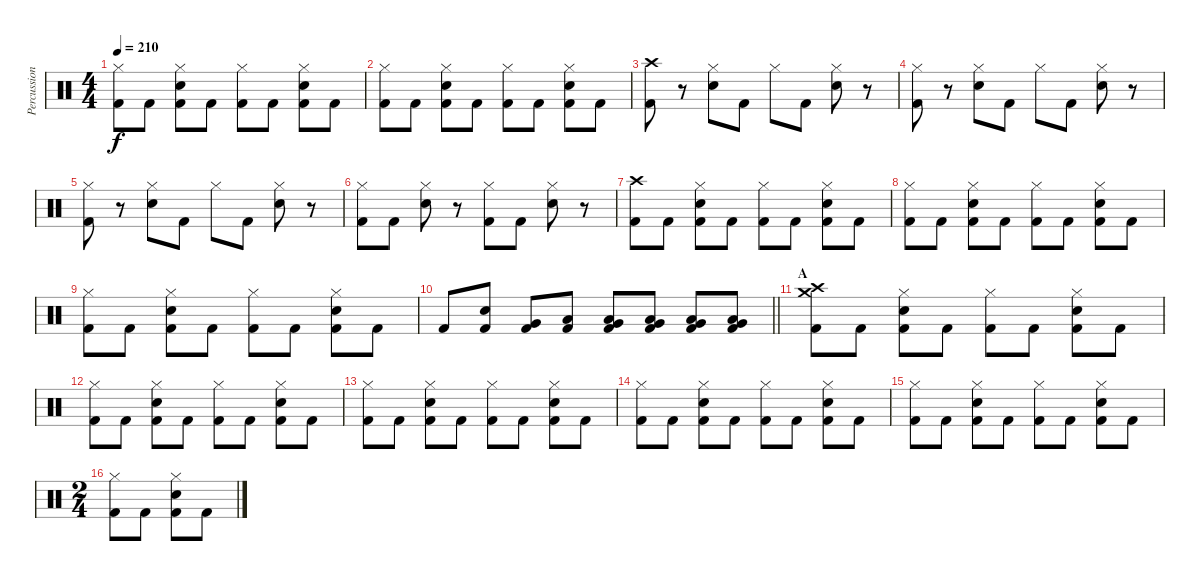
\track ("Percussion" "Percussion") {instrument percussion}
\staff {score}
\articulation defaults
\ts (4 4)
\tempo 210
\clef neutral
\ks c
("Hi-Hat (closed)" "Kick (hit) 2").8{dy f} "Kick (hit) 2".8 ("Hi-Hat (closed)" "Electric Snare (hit)" "Kick (hit) 2").8 "Kick (hit) 2".8 ("Hi-Hat (closed)" "Kick (hit) 2").8 "Kick (hit) 2".8 ("Hi-Hat (closed)" "Electric Snare (hit)" "Kick (hit) 2").8 "Kick (hit) 2".8 |
("Hi-Hat (closed)" "Kick (hit) 2").8 "Kick (hit) 2".8 ("Hi-Hat (closed)" "Electric Snare (hit)" "Kick (hit) 2").8 "Kick (hit) 2".8 ("Hi-Hat (closed)" "Kick (hit) 2").8 "Kick (hit) 2".8 ("Hi-Hat (closed)" "Electric Snare (hit)" "Kick (hit) 2").8 "Kick (hit) 2".8 |
("Crash high (hit)" "Kick (hit) 2").8 r.8 ("Hi-Hat (closed)" "Electric Snare (hit)").8 "Kick (hit) 2".8 "Hi-Hat (closed)".8 "Kick (hit) 2".8 ("Hi-Hat (closed)" "Electric Snare (hit)").8 r.8 |
("Hi-Hat (closed)" "Kick (hit) 2").8 r.8 ("Hi-Hat (closed)" "Electric Snare (hit)").8 "Kick (hit) 2".8 "Hi-Hat (closed)".8 "Kick (hit) 2".8 ("Hi-Hat (closed)" "Electric Snare (hit)").8 r.8 |
("Hi-Hat (closed)" "Kick (hit) 2").8 r.8 ("Hi-Hat (closed)" "Electric Snare (hit)").8 "Kick (hit) 2".8 "Hi-Hat (closed)".8 "Kick (hit) 2".8 ("Hi-Hat (closed)" "Electric Snare (hit)").8 r.8 |
("Hi-Hat (closed)" "Kick (hit) 2").8 "Kick (hit) 2".8 ("Hi-Hat (closed)" "Electric Snare (hit)").8 r.8 ("Hi-Hat (closed)" "Kick (hit) 2").8 "Kick (hit) 2".8 ("Hi-Hat (closed)" "Electric Snare (hit)").8 r.8 |
("Crash high (hit)" "Kick (hit) 2").8 "Kick (hit) 2".8 ("Hi-Hat (closed)" "Electric Snare (hit)" "Kick (hit) 2").8 "Kick (hit) 2".8 ("Hi-Hat (closed)" "Kick (hit) 2").8 "Kick (hit) 2".8 ("Hi-Hat (closed)" "Electric Snare (hit)" "Kick (hit) 2").8 "Kick (hit) 2".8 |
("Hi-Hat (closed)" "Kick (hit) 2").8 "Kick (hit) 2".8 ("Hi-Hat (closed)" "Electric Snare (hit)" "Kick (hit) 2").8 "Kick (hit) 2".8 ("Hi-Hat (closed)" "Kick (hit) 2").8 "Kick (hit) 2".8 ("Hi-Hat (closed)" "Electric Snare (hit)" "Kick (hit) 2").8 "Kick (hit) 2".8 |
("Hi-Hat (closed)" "Kick (hit) 2").8 "Kick (hit) 2".8 ("Hi-Hat (closed)" "Electric Snare (hit)" "Kick (hit) 2").8 "Kick (hit) 2".8 ("Hi-Hat (closed)" "Kick (hit) 2").8 "Kick (hit) 2".8 ("Hi-Hat (closed)" "Electric Snare (hit)" "Kick (hit) 2").8 "Kick (hit) 2".8 |
\barLineRight lightlight "Kick (hit) 2".8
("Electric Snare (hit)" "Kick (hit) 2").8 ("Very Low Tom (hit)" "Kick (hit) 2").8 ("Low Floor Tom (hit)" "Kick (hit) 2").8 ("Low Tom (hit)" "Very Low Tom (hit)" "Kick (hit) 2").8 ("Low Tom (hit)" "Very Low Tom (hit)" "Kick (hit) 2").8 ("Low Tom (hit)" "Very Low Tom (hit)" "Kick (hit) 2").8 ("Low Tom (hit)" "Very Low Tom (hit)" "Kick (hit) 2").8 |
\section ("" "A")
("Crash medium (hit)" "Crash high (hit)" "Kick (hit) 2").8 "Kick (hit) 2".8 ("Hi-Hat (closed)" "Electric Snare (hit)" "Kick (hit) 2").8 "Kick (hit) 2".8 ("Hi-Hat (closed)" "Kick (hit) 2").8 "Kick (hit) 2".8 ("Hi-Hat (closed)" "Electric Snare (hit)" "Kick (hit) 2").8 "Kick (hit) 2".8 |
("Hi-Hat (closed)" "Kick (hit) 2").8 "Kick (hit) 2".8 ("Hi-Hat (closed)" "Electric Snare (hit)" "Kick (hit) 2").8 "Kick (hit) 2".8 ("Hi-Hat (closed)" "Kick (hit) 2").8 "Kick (hit) 2".8 ("Hi-Hat (closed)" "Electric Snare (hit)" "Kick (hit) 2").8 "Kick (hit) 2".8 |
("Hi-Hat (closed)" "Kick (hit) 2").8 "Kick (hit) 2".8 ("Hi-Hat (closed)" "Electric Snare (hit)" "Kick (hit) 2").8 "Kick (hit) 2".8 ("Hi-Hat (closed)" "Kick (hit) 2").8 "Kick (hit) 2".8 ("Hi-Hat (closed)" "Electric Snare (hit)" "Kick (hit) 2").8 "Kick (hit) 2".8 |
("Hi-Hat (closed)" "Kick (hit) 2").8 "Kick (hit) 2".8 ("Hi-Hat (closed)" "Electric Snare (hit)" "Kick (hit) 2").8 "Kick (hit) 2".8 ("Hi-Hat (closed)" "Kick (hit) 2").8 "Kick (hit) 2".8 ("Hi-Hat (closed)" "Electric Snare (hit)" "Kick (hit) 2").8 "Kick (hit) 2".8 |
("Hi-Hat (closed)" "Kick (hit) 2").8 "Kick (hit) 2".8 ("Hi-Hat (closed)" "Electric Snare (hit)" "Kick (hit) 2").8 "Kick (hit) 2".8 ("Hi-Hat (closed)" "Kick (hit) 2").8 "Kick (hit) 2".8 ("Hi-Hat (closed)" "Electric Snare (hit)" "Kick (hit) 2").8 "Kick (hit) 2".8 |
\ts (2 4)
("Hi-Hat (closed)" "Kick (hit) 2").8 "Kick (hit) 2".8 ("Hi-Hat (closed)" "Electric Snare (hit)" "Kick (hit) 2").8 "Kick (hit) 2".8
